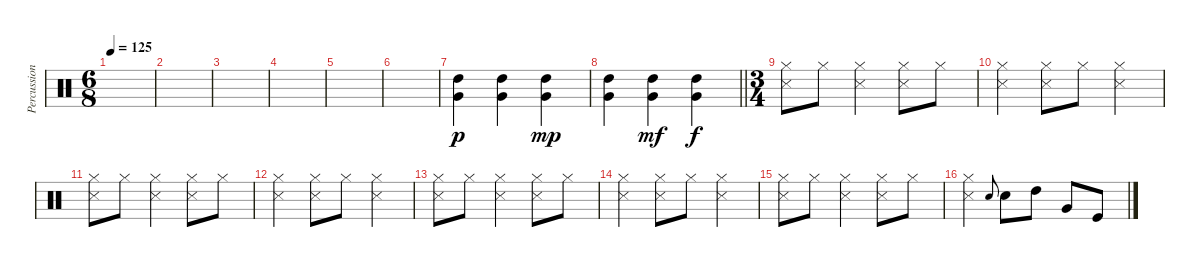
\track ("Percussion" "Percussion") {instrument percussion}
\staff {score}
\articulation defaults
\ts (6 8)
\tempo 125
\clef neutral
\ks c
|
|
|
|
|
|
("High Tom (hit)" "Very Low Tom (hit)").4{dy p} ("High Tom (hit)" "Very Low Tom (hit)").4 ("High Tom (hit)" "Very Low Tom (hit)").4{dy mp} |
\barLineRight lightlight
("High Tom (hit)" "Very Low Tom (hit)").4 ("High Tom (hit)" "Very Low Tom (hit)").4{dy mf} ("High Tom (hit)" "Very Low Tom (hit)").4{dy f} |
\ts (3 4)
("Hi-Hat (closed)" "Snare (side stick) 3").8 "Hi-Hat (closed)".8 ("Hi-Hat (closed)" "Snare (side stick) 3").4 ("Hi-Hat (closed)" "Snare (side stick) 3").8 "Hi-Hat (closed)".8 |
("Hi-Hat (closed)" "Snare (side stick) 3").4 ("Hi-Hat (closed)" "Snare (side stick) 3").8 "Hi-Hat (closed)".8 ("Hi-Hat (closed)" "Snare (side stick) 3").4 |
("Hi-Hat (closed)" "Snare (side stick) 3").8 "Hi-Hat (closed)".8 ("Hi-Hat (closed)" "Snare (side stick) 3").4 ("Hi-Hat (closed)" "Snare (side stick) 3").8 "Hi-Hat (closed)".8 |
("Hi-Hat (closed)" "Snare (side stick) 3").4 ("Hi-Hat (closed)" "Snare (side stick) 3").8 "Hi-Hat (closed)".8 ("Hi-Hat (closed)" "Snare (side stick) 3").4 |
("Hi-Hat (closed)" "Snare (side stick) 3").8 "Hi-Hat (closed)".8 ("Hi-Hat (closed)" "Snare (side stick) 3").4 ("Hi-Hat (closed)" "Snare (side stick) 3").8 "Hi-Hat (closed)".8 |
("Hi-Hat (closed)" "Snare (side stick) 3").4 ("Hi-Hat (closed)" "Snare (side stick) 3").8 "Hi-Hat (closed)".8 ("Hi-Hat (closed)" "Snare (side stick) 3").4 |
("Hi-Hat (closed)" "Snare (side stick) 3").8 "Hi-Hat (closed)".8 ("Hi-Hat (closed)" "Snare (side stick) 3").4 ("Hi-Hat (closed)" "Snare (side stick) 3").8 "Hi-Hat (closed)".8 |
("Hi-Hat (closed)" "Snare (side stick) 3").4 "Snare (hit) 2".8{gr onbeat} "Snare (hit) 2".8 "High Tom (hit)".8 "Very Low Tom (hit)".8 "Kick (hit)".8
